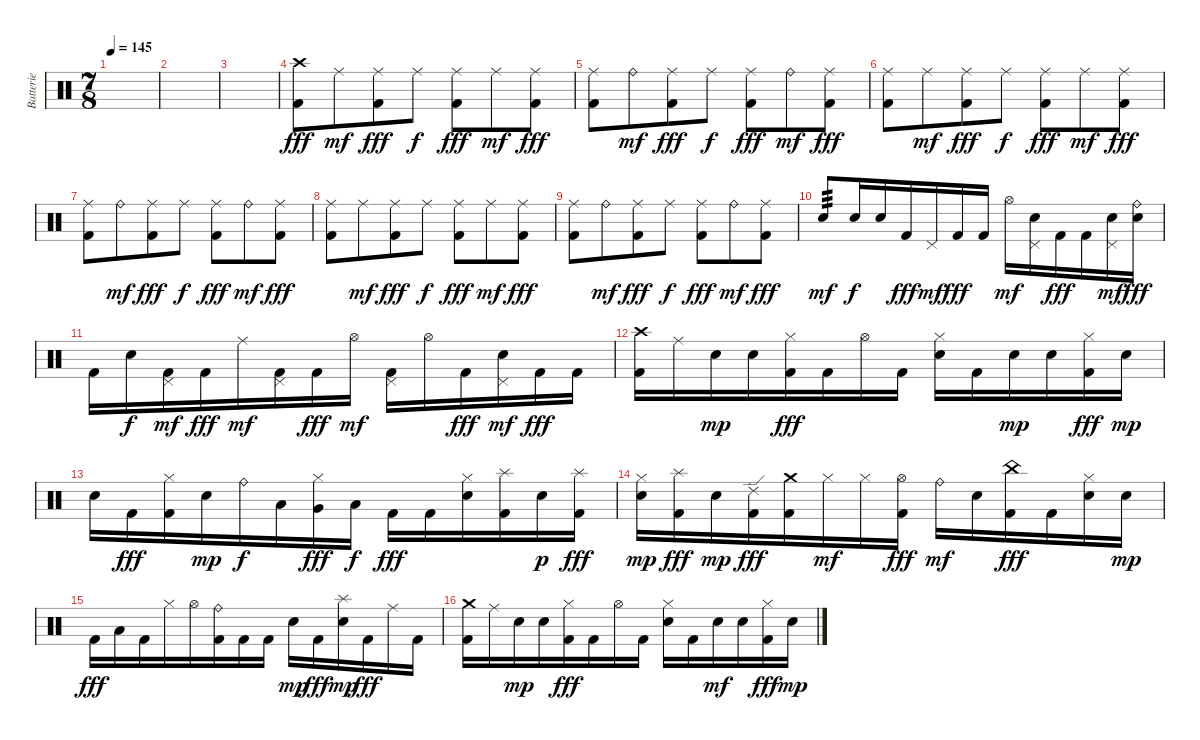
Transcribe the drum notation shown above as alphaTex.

\track ("Batterie" "Batterie") {instrument percussion}
\staff {score}
\articulation defaults
\ts (7 8)
\tempo 145
\clef neutral
\ks c
|
|
|
("Crash high (hit)" "Kick (hit) 2").8{dy fff} "Ride (middle)".8{dy mf} ("Ride (middle)" "Kick (hit) 2").8{dy fff} "Ride (middle)".8{dy f} ("Ride (middle)" "Kick (hit) 2").8{dy fff} "Ride (middle)".8{dy mf} ("Ride (middle)" "Kick (hit) 2").8{dy fff} |
("Ride (middle)" "Kick (hit) 2").8 "Ride (bell)".8{dy mf} ("Ride (middle)" "Kick (hit) 2").8{dy fff} "Ride (middle)".8{dy f} ("Ride (middle)" "Kick (hit) 2").8{dy fff} "Ride (bell)".8{dy mf} ("Ride (middle)" "Kick (hit) 2").8{dy fff} |
("Ride (middle)" "Kick (hit) 2").8 "Ride (middle)".8{dy mf} ("Ride (middle)" "Kick (hit) 2").8{dy fff} "Ride (middle)".8{dy f} ("Ride (middle)" "Kick (hit) 2").8{dy fff} "Ride (middle)".8{dy mf} ("Ride (middle)" "Kick (hit) 2").8{dy fff} |
("Ride (middle)" "Kick (hit) 2").8 "Ride (bell)".8{dy mf} ("Ride (middle)" "Kick (hit) 2").8{dy fff} "Ride (middle)".8{dy f} ("Ride (middle)" "Kick (hit) 2").8{dy fff} "Ride (bell)".8{dy mf} ("Ride (middle)" "Kick (hit) 2").8{dy fff} |
("Ride (middle)" "Kick (hit) 2").8 "Ride (middle)".8{dy mf} ("Ride (middle)" "Kick (hit) 2").8{dy fff} "Ride (middle)".8{dy f} ("Ride (middle)" "Kick (hit) 2").8{dy fff} "Ride (middle)".8{dy mf} ("Ride (middle)" "Kick (hit) 2").8{dy fff} |
("Ride (middle)" "Kick (hit) 2").8 "Ride (bell)".8{dy mf} ("Ride (middle)" "Kick (hit) 2").8{dy fff} "Ride (middle)".8{dy f} ("Ride (middle)" "Kick (hit) 2").8{dy fff} "Ride (bell)".8{dy mf} ("Ride (middle)" "Kick (hit) 2").8{dy fff} |
"Electric Snare (hit)".8{tp 3 dy mf} "Electric Snare (hit)".16{dy f} "Electric Snare (hit)".16 "Kick (hit) 2".16{dy fff} "Pedal Hi-Hat (hit)".16{dy mf} "Kick (hit) 2".16{dy fff} "Kick (hit) 2".16 "Hi-Hat (open)".16{dy mf} ("Electric Snare (hit)" "Pedal Hi-Hat (hit)").16 "Kick (hit) 2".16{dy fff} "Kick (hit) 2".16 ("Electric Snare (hit)" "Pedal Hi-Hat (hit)").16{dy mf} ("Ride (bell)" "Electric Snare (hit)").16{dy fff} |
"Kick (hit) 2".16 "Electric Snare (hit)".16{dy f} ("Kick (hit) 2" "Pedal Hi-Hat (hit)").16{dy mf} "Kick (hit) 2".16{dy fff} "Ride (middle)".16{dy mf} ("Kick (hit) 2" "Pedal Hi-Hat (hit)").16 "Kick (hit) 2".16{dy fff} "Hi-Hat (open)".16{dy mf} ("Kick (hit) 2" "Pedal Hi-Hat (hit)").16 "Hi-Hat (open)".16 "Kick (hit) 2".16{dy fff} ("Electric Snare (hit)" "Pedal Hi-Hat (hit)").16{dy mf} "Kick (hit) 2".16{dy fff} "Kick (hit) 2".16 |
("Crash high (hit)" "Kick (hit) 2").16 "Ride (middle)".16 "Electric Snare (hit)".16{dy mp} "Electric Snare (hit)".16 ("Hi-Hat (closed)" "Kick (hit) 2").16{dy fff} "Kick (hit) 2".16 "Hi-Hat (open)".16 "Kick (hit) 2".16 ("Hi-Hat (closed)" "Electric Snare (hit)").16 "Kick (hit) 2".16 "Electric Snare (hit)".16{dy mp} "Electric Snare (hit)".16 ("Hi-Hat (closed)" "Kick (hit) 2").16{dy fff} "Electric Snare (hit)".16{dy mp} |
"Electric Snare (hit)".16 "Kick (hit) 2".16{dy fff} ("Hi-Hat (closed)" "Kick (hit) 2").16 "Electric Snare (hit)".16{dy mp} "Ride (bell)".16{dy f} "Low Tom (hit)".16 ("Hi-Hat (closed)" "Very Low Tom (hit)").16{dy fff} "Low Floor Tom (hit)".16{dy f} "Kick (hit) 2".16{dy fff} "Kick (hit) 2".16 ("Hi-Hat (closed)" "Electric Snare (hit)").16 ("Splash (hit)" "Kick (hit) 2").16 "Electric Snare (hit)".16{dy p} ("Splash (hit)" "Kick (hit) 2").16{dy fff} |
("Hi-Hat (closed)" "Electric Snare (hit)").16{dy mp} ("Splash (hit)" "Kick (hit) 2").16{dy fff} "Electric Snare (hit)".16{dy mp} ("Ride (edge) 2" "Kick (hit) 2").16{dy fff} ("Crash medium (hit)" "Kick (hit) 2").16 "Hi-Hat (closed)".16{dy mf} "Hi-Hat (closed)".16 ("Hi-Hat (open)" "Kick (hit) 2").16{dy fff} "Ride (bell)".16{dy mf} "Electric Snare (hit)".16 ("China (hit)" "Kick (hit) 2").16{dy fff} "Kick (hit) 2".16 ("Hi-Hat (closed)" "Electric Snare (hit)").16 "Electric Snare (hit)".16{dy mp} |
"Kick (hit) 2".16{dy fff} "Low Floor Tom (hit)".16 "Kick (hit) 2".16 "Hi-Hat (closed)".16 "Hi-Hat (open)".16 ("Ride (bell)" "Kick (hit) 2").16 "Kick (hit) 2".16 "Kick (hit) 2".16 "Electric Snare (hit)".16{dy mp} "Kick (hit) 2".16{dy fff} ("Splash (hit)" "Electric Snare (hit)").16{dy mp} "Kick (hit) 2".16{dy fff} "Ride (middle)".16 "Kick (hit) 2".16 |
("Crash medium (hit)" "Kick (hit) 2").16 "Ride (middle)".16 "Electric Snare (hit)".16{dy mp} "Electric Snare (hit)".16 ("Hi-Hat (closed)" "Kick (hit) 2").16{dy fff} "Kick (hit) 2".16 "Hi-Hat (open)".16 "Kick (hit) 2".16 ("Hi-Hat (closed)" "Electric Snare (hit)").16 "Kick (hit) 2".16 "Electric Snare (hit)".16{dy mf} "Electric Snare (hit)".16 ("Hi-Hat (closed)" "Kick (hit) 2").16{dy fff} "Electric Snare (hit)".16{dy mp}
